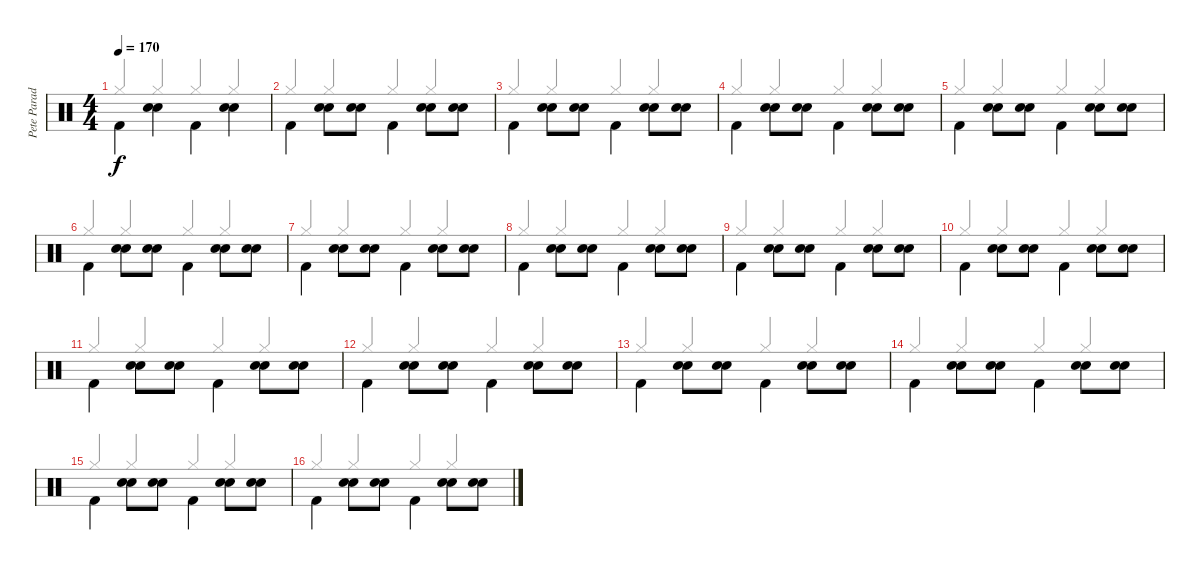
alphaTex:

\track ("Pete Parada" "Pete Parad") {instrument percussion}
\staff {score}
\articulation defaults
\voice
\ts (4 4)
\tempo 170
\clef neutral
\ks c "Kick (hit) 2".4{dy f beam Down}
("Electric Snare (hit)" "Electric Snare (hit)").4{beam Down} "Kick (hit) 2".4{beam Down} ("Electric Snare (hit)" "Electric Snare (hit)").4{beam Down} |
"Kick (hit) 2".4{beam Down} ("Electric Snare (hit)" "Electric Snare (hit)").8{beam Down} ("Electric Snare (hit)" "Electric Snare (hit)").8{beam Down} "Kick (hit) 2".4{beam Down} ("Electric Snare (hit)" "Electric Snare (hit)").8{beam Down} ("Electric Snare (hit)" "Electric Snare (hit)").8{beam Down} |
"Kick (hit) 2".4{beam Down} ("Electric Snare (hit)" "Electric Snare (hit)").8{beam Down} ("Electric Snare (hit)" "Electric Snare (hit)").8{beam Down} "Kick (hit) 2".4{beam Down} ("Electric Snare (hit)" "Electric Snare (hit)").8{beam Down} ("Electric Snare (hit)" "Electric Snare (hit)").8{beam Down} |
"Kick (hit) 2".4{beam Down} ("Electric Snare (hit)" "Electric Snare (hit)").8{beam Down} ("Electric Snare (hit)" "Electric Snare (hit)").8{beam Down} "Kick (hit) 2".4{beam Down} ("Electric Snare (hit)" "Electric Snare (hit)").8{beam Down} ("Electric Snare (hit)" "Electric Snare (hit)").8{beam Down} |
"Kick (hit) 2".4{beam Down} ("Electric Snare (hit)" "Electric Snare (hit)").8{beam Down} ("Electric Snare (hit)" "Electric Snare (hit)").8{beam Down} "Kick (hit) 2".4{beam Down} ("Electric Snare (hit)" "Electric Snare (hit)").8{beam Down} ("Electric Snare (hit)" "Electric Snare (hit)").8{beam Down} |
"Kick (hit) 2".4{beam Down} ("Electric Snare (hit)" "Electric Snare (hit)").8{beam Down} ("Electric Snare (hit)" "Electric Snare (hit)").8{beam Down} "Kick (hit) 2".4{beam Down} ("Electric Snare (hit)" "Electric Snare (hit)").8{beam Down} ("Electric Snare (hit)" "Electric Snare (hit)").8{beam Down} |
"Kick (hit) 2".4{beam Down} ("Electric Snare (hit)" "Electric Snare (hit)").8{beam Down} ("Electric Snare (hit)" "Electric Snare (hit)").8{beam Down} "Kick (hit) 2".4{beam Down} ("Electric Snare (hit)" "Electric Snare (hit)").8{beam Down} ("Electric Snare (hit)" "Electric Snare (hit)").8{beam Down} |
"Kick (hit) 2".4{beam Down} ("Electric Snare (hit)" "Electric Snare (hit)").8{beam Down} ("Electric Snare (hit)" "Electric Snare (hit)").8{beam Down} "Kick (hit) 2".4{beam Down} ("Electric Snare (hit)" "Electric Snare (hit)").8{beam Down} ("Electric Snare (hit)" "Electric Snare (hit)").8{beam Down} |
"Kick (hit) 2".4{beam Down} ("Electric Snare (hit)" "Electric Snare (hit)").8{beam Down} ("Electric Snare (hit)" "Electric Snare (hit)").8{beam Down} "Kick (hit) 2".4{beam Down} ("Electric Snare (hit)" "Electric Snare (hit)").8{beam Down} ("Electric Snare (hit)" "Electric Snare (hit)").8{beam Down} |
"Kick (hit) 2".4{beam Down} ("Electric Snare (hit)" "Electric Snare (hit)").8{beam Down} ("Electric Snare (hit)" "Electric Snare (hit)").8{beam Down} "Kick (hit) 2".4{beam Down} ("Electric Snare (hit)" "Electric Snare (hit)").8{beam Down} ("Electric Snare (hit)" "Electric Snare (hit)").8{beam Down} |
"Kick (hit) 2".4{beam Down} ("Electric Snare (hit)" "Electric Snare (hit)").8{beam Down} ("Electric Snare (hit)" "Electric Snare (hit)").8{beam Down} "Kick (hit) 2".4{beam Down} ("Electric Snare (hit)" "Electric Snare (hit)").8{beam Down} ("Electric Snare (hit)" "Electric Snare (hit)").8{beam Down} |
"Kick (hit) 2".4{beam Down} ("Electric Snare (hit)" "Electric Snare (hit)").8{beam Down} ("Electric Snare (hit)" "Electric Snare (hit)").8{beam Down} "Kick (hit) 2".4{beam Down} ("Electric Snare (hit)" "Electric Snare (hit)").8{beam Down} ("Electric Snare (hit)" "Electric Snare (hit)").8{beam Down} |
"Kick (hit) 2".4{beam Down} ("Electric Snare (hit)" "Electric Snare (hit)").8{beam Down} ("Electric Snare (hit)" "Electric Snare (hit)").8{beam Down} "Kick (hit) 2".4{beam Down} ("Electric Snare (hit)" "Electric Snare (hit)").8{beam Down} ("Electric Snare (hit)" "Electric Snare (hit)").8{beam Down} |
"Kick (hit) 2".4{beam Down} ("Electric Snare (hit)" "Electric Snare (hit)").8{beam Down} ("Electric Snare (hit)" "Electric Snare (hit)").8{beam Down} "Kick (hit) 2".4{beam Down} ("Electric Snare (hit)" "Electric Snare (hit)").8{beam Down} ("Electric Snare (hit)" "Electric Snare (hit)").8{beam Down} |
"Kick (hit) 2".4{beam Down} ("Electric Snare (hit)" "Electric Snare (hit)").8{beam Down} ("Electric Snare (hit)" "Electric Snare (hit)").8{beam Down} "Kick (hit) 2".4{beam Down} ("Electric Snare (hit)" "Electric Snare (hit)").8{beam Down} ("Electric Snare (hit)" "Electric Snare (hit)").8{beam Down} |
"Kick (hit) 2".4{beam Down} ("Electric Snare (hit)" "Electric Snare (hit)").8{beam Down} ("Electric Snare (hit)" "Electric Snare (hit)").8{beam Down} "Kick (hit) 2".4{beam Down} ("Electric Snare (hit)" "Electric Snare (hit)").8{beam Down} ("Electric Snare (hit)" "Electric Snare (hit)").8{beam Down}
\voice
\clef neutral
\ottava regular
\simile none
\ks c "Hi-Hat (closed)".4{dy f beam Up} "Hi-Hat (closed)".4{beam Up} "Hi-Hat (closed)".4{beam Up} "Hi-Hat (closed)".4{beam Up}
|
"Hi-Hat (closed)".4{beam Up} "Hi-Hat (closed)".4{beam Up} "Hi-Hat (closed)".4{beam Up} "Hi-Hat (closed)".4{beam Up} |
"Hi-Hat (closed)".4{beam Up} "Hi-Hat (closed)".4{beam Up} "Hi-Hat (closed)".4{beam Up} "Hi-Hat (closed)".4{beam Up} |
"Hi-Hat (closed)".4{beam Up} "Hi-Hat (closed)".4{beam Up} "Hi-Hat (closed)".4{beam Up} "Hi-Hat (closed)".4{beam Up} |
"Hi-Hat (closed)".4{beam Up} "Hi-Hat (closed)".4{beam Up} "Hi-Hat (closed)".4{beam Up} "Hi-Hat (closed)".4{beam Up} |
"Hi-Hat (closed)".4{beam Up} "Hi-Hat (closed)".4{beam Up} "Hi-Hat (closed)".4{beam Up} "Hi-Hat (closed)".4{beam Up} |
"Hi-Hat (closed)".4{beam Up} "Hi-Hat (closed)".4{beam Up} "Hi-Hat (closed)".4{beam Up} "Hi-Hat (closed)".4{beam Up} |
"Hi-Hat (closed)".4{beam Up} "Hi-Hat (closed)".4{beam Up} "Hi-Hat (closed)".4{beam Up} "Hi-Hat (closed)".4{beam Up} |
"Hi-Hat (closed)".4{beam Up} "Hi-Hat (closed)".4{beam Up} "Hi-Hat (closed)".4{beam Up} "Hi-Hat (closed)".4{beam Up} |
"Hi-Hat (closed)".4{beam Up} "Hi-Hat (closed)".4{beam Up} "Hi-Hat (closed)".4{beam Up} "Hi-Hat (closed)".4{beam Up} |
"Hi-Hat (closed)".4{beam Up} "Hi-Hat (closed)".4{beam Up} "Hi-Hat (closed)".4{beam Up} "Hi-Hat (closed)".4{beam Up} |
"Hi-Hat (closed)".4{beam Up} "Hi-Hat (closed)".4{beam Up} "Hi-Hat (closed)".4{beam Up} "Hi-Hat (closed)".4{beam Up} |
"Hi-Hat (closed)".4{beam Up} "Hi-Hat (closed)".4{beam Up} "Hi-Hat (closed)".4{beam Up} "Hi-Hat (closed)".4{beam Up} |
"Hi-Hat (closed)".4{beam Up} "Hi-Hat (closed)".4{beam Up} "Hi-Hat (closed)".4{beam Up} "Hi-Hat (closed)".4{beam Up} |
"Hi-Hat (closed)".4{beam Up} "Hi-Hat (closed)".4{beam Up} "Hi-Hat (closed)".4{beam Up} "Hi-Hat (closed)".4{beam Up} |
"Hi-Hat (closed)".4{beam Up} "Hi-Hat (closed)".4{beam Up} "Hi-Hat (closed)".4{beam Up} "Hi-Hat (closed)".4{beam Up}
